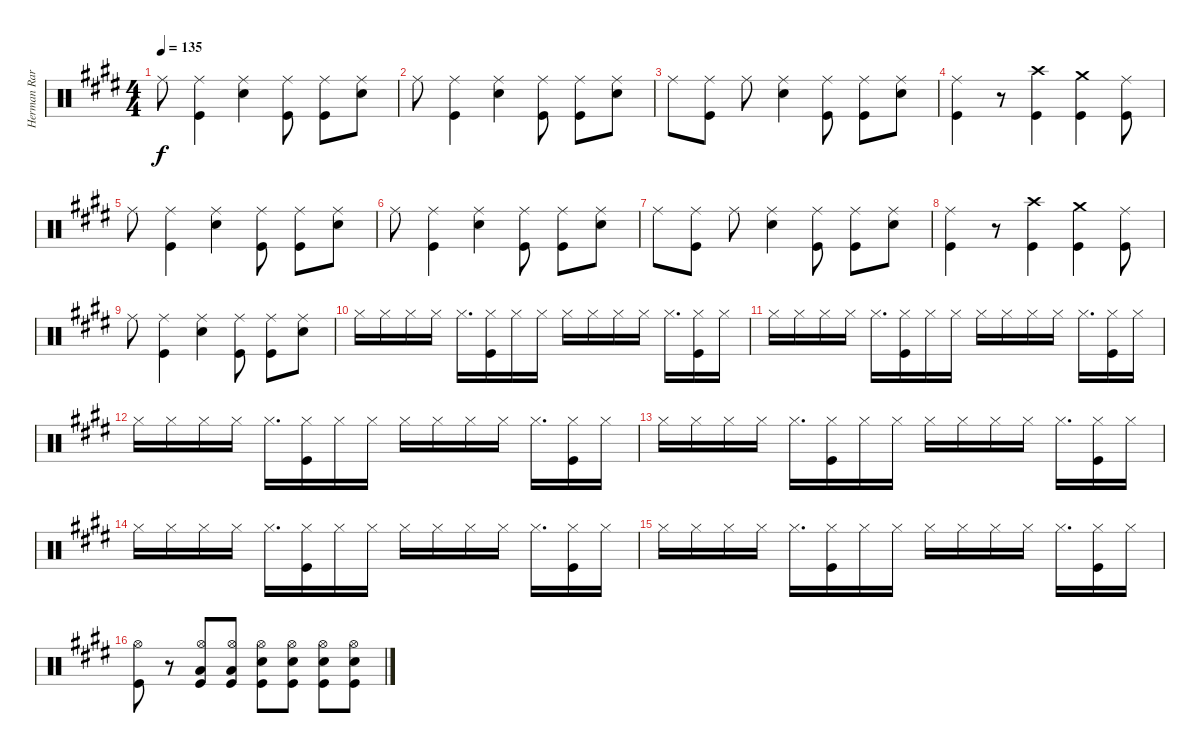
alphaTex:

\track ("Herman Rarebell Drums" "Herman Rar") {instrument percussion}
\staff {score}
\articulation defaults
\ts (4 4)
\tempo 135
\clef neutral
\ks e "Ride (middle)".8{dy f}
("Ride (middle)" "Kick (hit)").4 ("Ride (middle)" "Snare (hit) 2").4 ("Ride (middle)" "Kick (hit)").8 ("Ride (middle)" "Kick (hit)").8 ("Ride (middle)" "Snare (hit) 2").8 |
"Ride (middle)".8 ("Ride (middle)" "Kick (hit)").4 ("Ride (middle)" "Snare (hit) 2").4 ("Ride (middle)" "Kick (hit)").8 ("Ride (middle)" "Kick (hit)").8 ("Ride (middle)" "Snare (hit) 2").8 |
"Ride (middle)".8 ("Ride (middle)" "Kick (hit)").8 "Ride (middle)".8 ("Ride (middle)" "Snare (hit) 2").4 ("Ride (middle)" "Kick (hit)").8 ("Ride (middle)" "Kick (hit)").8 ("Ride (middle)" "Snare (hit) 2").8 |
("Ride (middle)" "Kick (hit)").4 r.8 ("Crash high (hit)" "Kick (hit)").4 ("Crash medium (hit)" "Kick (hit)").4 ("Ride (middle)" "Kick (hit)").8 |
"Ride (middle)".8 ("Ride (middle)" "Kick (hit)").4 ("Ride (middle)" "Snare (hit) 2").4 ("Ride (middle)" "Kick (hit)").8 ("Ride (middle)" "Kick (hit)").8 ("Ride (middle)" "Snare (hit) 2").8 |
"Ride (middle)".8 ("Ride (middle)" "Kick (hit)").4 ("Ride (middle)" "Snare (hit) 2").4 ("Ride (middle)" "Kick (hit)").8 ("Ride (middle)" "Kick (hit)").8 ("Ride (middle)" "Snare (hit) 2").8 |
"Ride (middle)".8 ("Ride (middle)" "Kick (hit)").8 "Ride (middle)".8 ("Ride (middle)" "Snare (hit) 2").4 ("Ride (middle)" "Kick (hit)").8 ("Ride (middle)" "Kick (hit)").8 ("Ride (middle)" "Snare (hit) 2").8 |
("Ride (middle)" "Kick (hit)").4 r.8 ("Crash high (hit)" "Kick (hit)").4 ("Crash medium (hit)" "Kick (hit)").4 ("Ride (middle)" "Kick (hit)").8 |
"Ride (middle)".8 ("Ride (middle)" "Kick (hit)").4 ("Ride (middle)" "Snare (hit) 2").4 ("Ride (middle)" "Kick (hit)").8 ("Ride (middle)" "Kick (hit)").8 ("Ride (middle)" "Snare (hit) 2").8 |
"Hi-Hat (closed)".16 "Hi-Hat (closed)".16 "Hi-Hat (closed)".16 "Hi-Hat (closed)".16 "Hi-Hat (closed)".16{d} ("Hi-Hat (closed)" "Kick (hit)").16 "Hi-Hat (closed)".16 "Hi-Hat (closed)".16 "Hi-Hat (closed)".16 "Hi-Hat (closed)".16 "Hi-Hat (closed)".16 "Hi-Hat (closed)".16 "Hi-Hat (closed)".16{d} ("Hi-Hat (closed)" "Kick (hit)").16 "Hi-Hat (closed)".16 |
"Hi-Hat (closed)".16 "Hi-Hat (closed)".16 "Hi-Hat (closed)".16 "Hi-Hat (closed)".16 "Hi-Hat (closed)".16{d} ("Hi-Hat (closed)" "Kick (hit)").16 "Hi-Hat (closed)".16 "Hi-Hat (closed)".16 "Hi-Hat (closed)".16 "Hi-Hat (closed)".16 "Hi-Hat (closed)".16 "Hi-Hat (closed)".16 "Hi-Hat (closed)".16{d} ("Hi-Hat (closed)" "Kick (hit)").16 "Hi-Hat (closed)".16 |
"Hi-Hat (closed)".16 "Hi-Hat (closed)".16 "Hi-Hat (closed)".16 "Hi-Hat (closed)".16 "Hi-Hat (closed)".16{d} ("Hi-Hat (closed)" "Kick (hit)").16 "Hi-Hat (closed)".16 "Hi-Hat (closed)".16 "Hi-Hat (closed)".16 "Hi-Hat (closed)".16 "Hi-Hat (closed)".16 "Hi-Hat (closed)".16 "Hi-Hat (closed)".16{d} ("Hi-Hat (closed)" "Kick (hit)").16 "Hi-Hat (closed)".16 |
"Hi-Hat (closed)".16 "Hi-Hat (closed)".16 "Hi-Hat (closed)".16 "Hi-Hat (closed)".16 "Hi-Hat (closed)".16{d} ("Hi-Hat (closed)" "Kick (hit)").16 "Hi-Hat (closed)".16 "Hi-Hat (closed)".16 "Hi-Hat (closed)".16 "Hi-Hat (closed)".16 "Hi-Hat (closed)".16 "Hi-Hat (closed)".16 "Hi-Hat (closed)".16{d} ("Hi-Hat (closed)" "Kick (hit)").16 "Hi-Hat (closed)".16 |
"Hi-Hat (closed)".16 "Hi-Hat (closed)".16 "Hi-Hat (closed)".16 "Hi-Hat (closed)".16 "Hi-Hat (closed)".16{d} ("Hi-Hat (closed)" "Kick (hit)").16 "Hi-Hat (closed)".16 "Hi-Hat (closed)".16 "Hi-Hat (closed)".16 "Hi-Hat (closed)".16 "Hi-Hat (closed)".16 "Hi-Hat (closed)".16 "Hi-Hat (closed)".16{d} ("Hi-Hat (closed)" "Kick (hit)").16 "Hi-Hat (closed)".16 |
"Hi-Hat (closed)".16 "Hi-Hat (closed)".16 "Hi-Hat (closed)".16 "Hi-Hat (closed)".16 "Hi-Hat (closed)".16{d} ("Hi-Hat (closed)" "Kick (hit)").16 "Hi-Hat (closed)".16 "Hi-Hat (closed)".16 "Hi-Hat (closed)".16 "Hi-Hat (closed)".16 "Hi-Hat (closed)".16 "Hi-Hat (closed)".16 "Hi-Hat (closed)".16{d} ("Hi-Hat (closed)" "Kick (hit)").16 "Hi-Hat (closed)".16 |
("Hi-Hat (open)" "Kick (hit)").8 r.8 ("Hi-Hat (open)" "Low Tom (hit)" "Kick (hit)").8 ("Hi-Hat (open)" "Low Tom (hit)" "Kick (hit)").8 ("Hi-Hat (open)" "Snare (hit) 2" "Kick (hit)").8 ("Hi-Hat (open)" "Snare (hit) 2" "Kick (hit)").8 ("Hi-Hat (open)" "Snare (hit) 2" "Kick (hit)").8 ("Hi-Hat (open)" "Snare (hit) 2" "Kick (hit)").8
